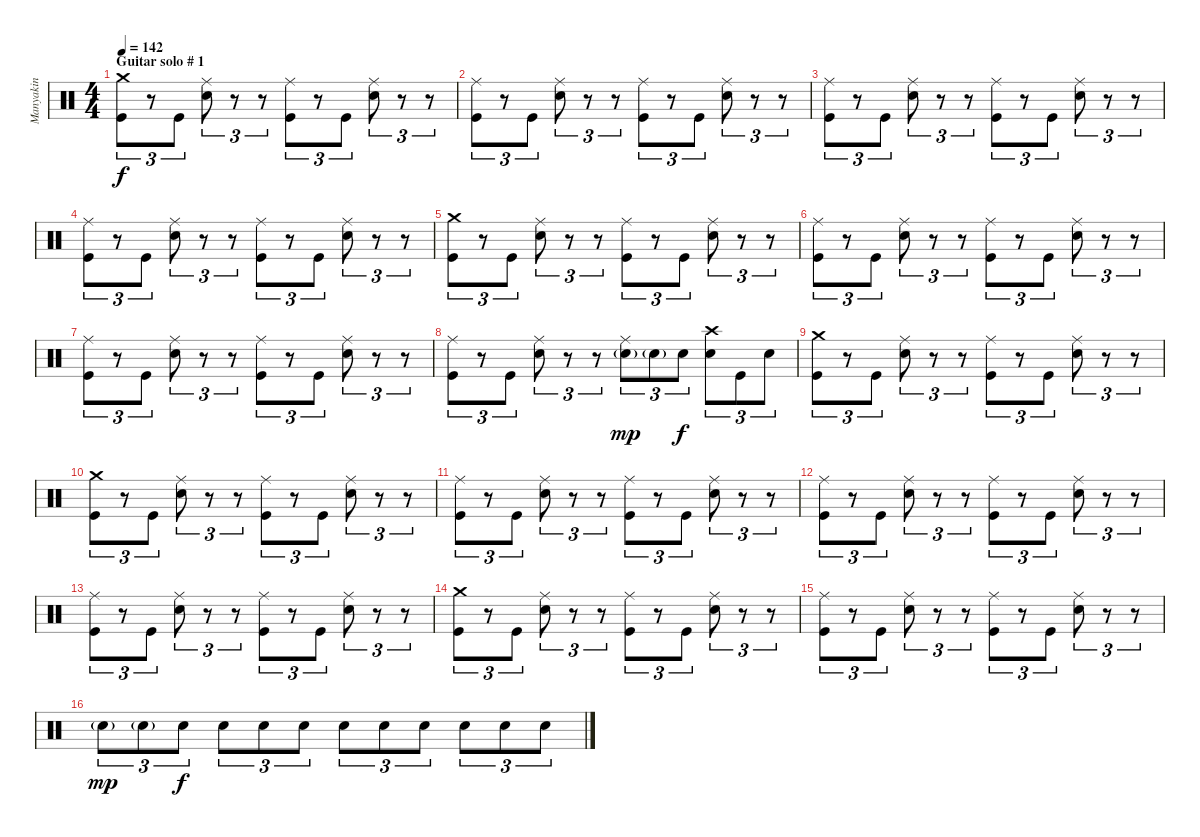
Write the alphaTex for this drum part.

\track ("Manyakin" "Manyakin") {instrument percussion}
\staff {score}
\articulation defaults
\ts (4 4)
\section ("" "Guitar solo # 1")
\tempo 142
\clef neutral
\ks c
("Kick (hit)" "Crash medium (hit)").8{tu (3 2) dy f} r.8{tu (3 2)} "Kick (hit)".8{tu (3 2)} ("Electric Snare (hit)" "Ride (middle)").8{tu (3 2)} r.8{tu (3 2)} r.8{tu (3 2)} ("Kick (hit)" "Ride (middle)").8{tu (3 2)} r.8{tu (3 2)} "Kick (hit)".8{tu (3 2)} ("Electric Snare (hit)" "Ride (middle)").8{tu (3 2)} r.8{tu (3 2)} r.8{tu (3 2)} |
("Kick (hit)" "Ride (middle)").8{tu (3 2)} r.8{tu (3 2)} "Kick (hit)".8{tu (3 2)} ("Electric Snare (hit)" "Ride (middle)").8{tu (3 2)} r.8{tu (3 2)} r.8{tu (3 2)} ("Kick (hit)" "Ride (middle)").8{tu (3 2)} r.8{tu (3 2)} "Kick (hit)".8{tu (3 2)} ("Electric Snare (hit)" "Ride (middle)").8{tu (3 2)} r.8{tu (3 2)} r.8{tu (3 2)} |
("Kick (hit)" "Ride (middle)").8{tu (3 2)} r.8{tu (3 2)} "Kick (hit)".8{tu (3 2)} ("Electric Snare (hit)" "Ride (middle)").8{tu (3 2)} r.8{tu (3 2)} r.8{tu (3 2)} ("Kick (hit)" "Ride (middle)").8{tu (3 2)} r.8{tu (3 2)} "Kick (hit)".8{tu (3 2)} ("Electric Snare (hit)" "Ride (middle)").8{tu (3 2)} r.8{tu (3 2)} r.8{tu (3 2)} |
("Kick (hit)" "Ride (middle)").8{tu (3 2)} r.8{tu (3 2)} "Kick (hit)".8{tu (3 2)} ("Electric Snare (hit)" "Ride (middle)").8{tu (3 2)} r.8{tu (3 2)} r.8{tu (3 2)} ("Kick (hit)" "Ride (middle)").8{tu (3 2)} r.8{tu (3 2)} "Kick (hit)".8{tu (3 2)} ("Electric Snare (hit)" "Ride (middle)").8{tu (3 2)} r.8{tu (3 2)} r.8{tu (3 2)} |
("Kick (hit)" "Crash medium (hit)").8{tu (3 2)} r.8{tu (3 2)} "Kick (hit)".8{tu (3 2)} ("Electric Snare (hit)" "Ride (middle)").8{tu (3 2)} r.8{tu (3 2)} r.8{tu (3 2)} ("Kick (hit)" "Ride (middle)").8{tu (3 2)} r.8{tu (3 2)} "Kick (hit)".8{tu (3 2)} ("Electric Snare (hit)" "Ride (middle)").8{tu (3 2)} r.8{tu (3 2)} r.8{tu (3 2)} |
("Kick (hit)" "Ride (middle)").8{tu (3 2)} r.8{tu (3 2)} "Kick (hit)".8{tu (3 2)} ("Electric Snare (hit)" "Ride (middle)").8{tu (3 2)} r.8{tu (3 2)} r.8{tu (3 2)} ("Kick (hit)" "Ride (middle)").8{tu (3 2)} r.8{tu (3 2)} "Kick (hit)".8{tu (3 2)} ("Electric Snare (hit)" "Ride (middle)").8{tu (3 2)} r.8{tu (3 2)} r.8{tu (3 2)} |
("Kick (hit)" "Ride (middle)").8{tu (3 2)} r.8{tu (3 2)} "Kick (hit)".8{tu (3 2)} ("Electric Snare (hit)" "Ride (middle)").8{tu (3 2)} r.8{tu (3 2)} r.8{tu (3 2)} ("Kick (hit)" "Ride (middle)").8{tu (3 2)} r.8{tu (3 2)} "Kick (hit)".8{tu (3 2)} ("Electric Snare (hit)" "Ride (middle)").8{tu (3 2)} r.8{tu (3 2)} r.8{tu (3 2)} |
("Kick (hit)" "Ride (middle)").8{tu (3 2)} r.8{tu (3 2)} "Kick (hit)".8{tu (3 2)} ("Electric Snare (hit)" "Ride (middle)").8{tu (3 2)} r.8{tu (3 2)} r.8{tu (3 2)} ("Electric Snare (hit)"{g} "Ride (middle)").8{tu (3 2) dy mp} "Electric Snare (hit)"{g}.8{tu (3 2)} "Electric Snare (hit)".8{tu (3 2) dy f} ("Electric Snare (hit)" "Crash high (hit)").8{tu (3 2)} "Kick (hit)".8{tu (3 2)} "Electric Snare (hit)".8{tu (3 2)} |
("Kick (hit)" "Crash medium (hit)").8{tu (3 2)} r.8{tu (3 2)} "Kick (hit)".8{tu (3 2)} ("Electric Snare (hit)" "Ride (middle)").8{tu (3 2)} r.8{tu (3 2)} r.8{tu (3 2)} ("Kick (hit)" "Ride (middle)").8{tu (3 2)} r.8{tu (3 2)} "Kick (hit)".8{tu (3 2)} ("Electric Snare (hit)" "Ride (middle)").8{tu (3 2)} r.8{tu (3 2)} r.8{tu (3 2)} |
("Kick (hit)" "Crash medium (hit)").8{tu (3 2)} r.8{tu (3 2)} "Kick (hit)".8{tu (3 2)} ("Electric Snare (hit)" "Ride (middle)").8{tu (3 2)} r.8{tu (3 2)} r.8{tu (3 2)} ("Kick (hit)" "Ride (middle)").8{tu (3 2)} r.8{tu (3 2)} "Kick (hit)".8{tu (3 2)} ("Electric Snare (hit)" "Ride (middle)").8{tu (3 2)} r.8{tu (3 2)} r.8{tu (3 2)} |
("Kick (hit)" "Ride (middle)").8{tu (3 2)} r.8{tu (3 2)} "Kick (hit)".8{tu (3 2)} ("Electric Snare (hit)" "Ride (middle)").8{tu (3 2)} r.8{tu (3 2)} r.8{tu (3 2)} ("Kick (hit)" "Ride (middle)").8{tu (3 2)} r.8{tu (3 2)} "Kick (hit)".8{tu (3 2)} ("Electric Snare (hit)" "Ride (middle)").8{tu (3 2)} r.8{tu (3 2)} r.8{tu (3 2)} |
("Kick (hit)" "Ride (middle)").8{tu (3 2)} r.8{tu (3 2)} "Kick (hit)".8{tu (3 2)} ("Electric Snare (hit)" "Ride (middle)").8{tu (3 2)} r.8{tu (3 2)} r.8{tu (3 2)} ("Kick (hit)" "Ride (middle)").8{tu (3 2)} r.8{tu (3 2)} "Kick (hit)".8{tu (3 2)} ("Electric Snare (hit)" "Ride (middle)").8{tu (3 2)} r.8{tu (3 2)} r.8{tu (3 2)} |
("Kick (hit)" "Ride (middle)").8{tu (3 2)} r.8{tu (3 2)} "Kick (hit)".8{tu (3 2)} ("Electric Snare (hit)" "Ride (middle)").8{tu (3 2)} r.8{tu (3 2)} r.8{tu (3 2)} ("Kick (hit)" "Ride (middle)").8{tu (3 2)} r.8{tu (3 2)} "Kick (hit)".8{tu (3 2)} ("Electric Snare (hit)" "Ride (middle)").8{tu (3 2)} r.8{tu (3 2)} r.8{tu (3 2)} |
("Kick (hit)" "Crash medium (hit)").8{tu (3 2)} r.8{tu (3 2)} "Kick (hit)".8{tu (3 2)} ("Electric Snare (hit)" "Ride (middle)").8{tu (3 2)} r.8{tu (3 2)} r.8{tu (3 2)} ("Kick (hit)" "Ride (middle)").8{tu (3 2)} r.8{tu (3 2)} "Kick (hit)".8{tu (3 2)} ("Electric Snare (hit)" "Ride (middle)").8{tu (3 2)} r.8{tu (3 2)} r.8{tu (3 2)} |
("Kick (hit)" "Ride (middle)").8{tu (3 2)} r.8{tu (3 2)} "Kick (hit)".8{tu (3 2)} ("Electric Snare (hit)" "Ride (middle)").8{tu (3 2)} r.8{tu (3 2)} r.8{tu (3 2)} ("Kick (hit)" "Ride (middle)").8{tu (3 2)} r.8{tu (3 2)} "Kick (hit)".8{tu (3 2)} ("Electric Snare (hit)" "Ride (middle)").8{tu (3 2)} r.8{tu (3 2)} r.8{tu (3 2)} |
"Electric Snare (hit)"{g}.8{tu (3 2) dy mp} "Electric Snare (hit)"{g}.8{tu (3 2)} "Electric Snare (hit)".8{tu (3 2) dy f} "Electric Snare (hit)".8{tu (3 2)} "Electric Snare (hit)".8{tu (3 2)} "Electric Snare (hit)".8{tu (3 2)} "Electric Snare (hit)".8{tu (3 2)} "Electric Snare (hit)".8{tu (3 2)} "Electric Snare (hit)".8{tu (3 2)} "Electric Snare (hit)".8{tu (3 2)} "Electric Snare (hit)".8{tu (3 2)} "Electric Snare (hit)".8{tu (3 2)}
